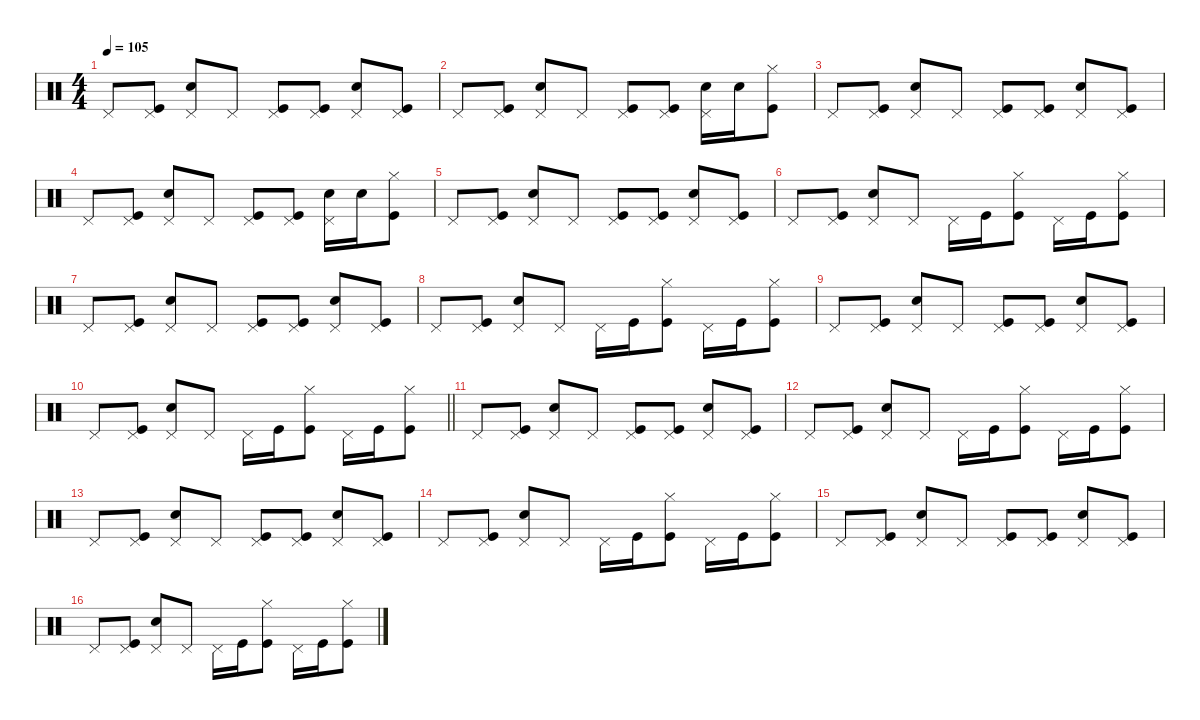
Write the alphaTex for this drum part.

\defaultSystemsLayout 4
\hideDynamics
\bracketExtendMode nobrackets
\singleTrackTrackNamePolicy hidden
\multiTrackTrackNamePolicy hidden
\otherSystemsTrackNameOrientation horizontal
\track ("Bonham" "drm.") {defaultSystemsLayout 4 instrument percussion}
\staff {score}
\articulation defaults
\ts (4 4)
\tempo 105
\clef neutral
\ks c "Pedal Hi-Hat (hit)".8{dy ff beam Up}
("Kick (hit)" "Pedal Hi-Hat (hit)").8{beam Up} ("Snare (hit) 2" "Pedal Hi-Hat (hit)").8{beam Up} "Pedal Hi-Hat (hit)".8{beam Up} ("Kick (hit)" "Pedal Hi-Hat (hit)").8{beam Up} ("Kick (hit)" "Pedal Hi-Hat (hit)").8{beam Up} ("Snare (hit) 2" "Pedal Hi-Hat (hit)").8{beam Up} ("Kick (hit)" "Pedal Hi-Hat (hit)").8{beam Up} |
"Pedal Hi-Hat (hit)".8{beam Up} ("Kick (hit)" "Pedal Hi-Hat (hit)").8{beam Up} ("Snare (hit) 2" "Pedal Hi-Hat (hit)").8{beam Up} "Pedal Hi-Hat (hit)".8{beam Up} ("Kick (hit)" "Pedal Hi-Hat (hit)").8{beam Up} ("Kick (hit)" "Pedal Hi-Hat (hit)").8{beam Up} ("Snare (hit) 2" "Pedal Hi-Hat (hit)").16{beam Down} "Snare (hit) 2".16{beam Down} ("Kick (hit)" "Hi-Hat (closed)").8{beam Down} |
"Pedal Hi-Hat (hit)".8{beam Up} ("Kick (hit)" "Pedal Hi-Hat (hit)").8{beam Up} ("Snare (hit) 2" "Pedal Hi-Hat (hit)").8{beam Up} "Pedal Hi-Hat (hit)".8{beam Up} ("Kick (hit)" "Pedal Hi-Hat (hit)").8{beam Up} ("Kick (hit)" "Pedal Hi-Hat (hit)").8{beam Up} ("Snare (hit) 2" "Pedal Hi-Hat (hit)").8{beam Up} ("Kick (hit)" "Pedal Hi-Hat (hit)").8{beam Up} |
"Pedal Hi-Hat (hit)".8{beam Up} ("Kick (hit)" "Pedal Hi-Hat (hit)").8{beam Up} ("Snare (hit) 2" "Pedal Hi-Hat (hit)").8{beam Up} "Pedal Hi-Hat (hit)".8{beam Up} ("Kick (hit)" "Pedal Hi-Hat (hit)").8{beam Up} ("Kick (hit)" "Pedal Hi-Hat (hit)").8{beam Up} ("Snare (hit) 2" "Pedal Hi-Hat (hit)").16{beam Down} "Snare (hit) 2".16{beam Down} ("Kick (hit)" "Hi-Hat (closed)").8{beam Down} |
"Pedal Hi-Hat (hit)".8{beam Up} ("Kick (hit)" "Pedal Hi-Hat (hit)").8{beam Up} ("Snare (hit) 2" "Pedal Hi-Hat (hit)").8{beam Up} "Pedal Hi-Hat (hit)".8{beam Up} ("Kick (hit)" "Pedal Hi-Hat (hit)").8{beam Up} ("Kick (hit)" "Pedal Hi-Hat (hit)").8{beam Up} ("Snare (hit) 2" "Pedal Hi-Hat (hit)").8{beam Up} ("Kick (hit)" "Pedal Hi-Hat (hit)").8{beam Up} |
"Pedal Hi-Hat (hit)".8{beam Up} ("Kick (hit)" "Pedal Hi-Hat (hit)").8{beam Up} ("Snare (hit) 2" "Pedal Hi-Hat (hit)").8{beam Up} "Pedal Hi-Hat (hit)".8{beam Up} "Pedal Hi-Hat (hit)".16{beam Down} "Kick (hit)".16{beam Down} ("Kick (hit)" "Hi-Hat (closed)").8{beam Down} "Pedal Hi-Hat (hit)".16{beam Down} "Kick (hit)".16{beam Down} ("Kick (hit)" "Hi-Hat (closed)").8{beam Down} |
"Pedal Hi-Hat (hit)".8{beam Up} ("Kick (hit)" "Pedal Hi-Hat (hit)").8{beam Up} ("Snare (hit) 2" "Pedal Hi-Hat (hit)").8{beam Up} "Pedal Hi-Hat (hit)".8{beam Up} ("Kick (hit)" "Pedal Hi-Hat (hit)").8{beam Up} ("Kick (hit)" "Pedal Hi-Hat (hit)").8{beam Up} ("Snare (hit) 2" "Pedal Hi-Hat (hit)").8{beam Up} ("Kick (hit)" "Pedal Hi-Hat (hit)").8{beam Up} |
"Pedal Hi-Hat (hit)".8{beam Up} ("Kick (hit)" "Pedal Hi-Hat (hit)").8{beam Up} ("Snare (hit) 2" "Pedal Hi-Hat (hit)").8{beam Up} "Pedal Hi-Hat (hit)".8{beam Up} "Pedal Hi-Hat (hit)".16{beam Down} "Kick (hit)".16{beam Down} ("Kick (hit)" "Hi-Hat (closed)").8{beam Down} "Pedal Hi-Hat (hit)".16{beam Down} "Kick (hit)".16{beam Down} ("Kick (hit)" "Hi-Hat (closed)").8{beam Down} |
"Pedal Hi-Hat (hit)".8{beam Up} ("Kick (hit)" "Pedal Hi-Hat (hit)").8{beam Up} ("Snare (hit) 2" "Pedal Hi-Hat (hit)").8{beam Up} "Pedal Hi-Hat (hit)".8{beam Up} ("Kick (hit)" "Pedal Hi-Hat (hit)").8{beam Up} ("Kick (hit)" "Pedal Hi-Hat (hit)").8{beam Up} ("Snare (hit) 2" "Pedal Hi-Hat (hit)").8{beam Up} ("Kick (hit)" "Pedal Hi-Hat (hit)").8{beam Up} |
\barLineRight lightlight "Pedal Hi-Hat (hit)".8{beam Up}
("Kick (hit)" "Pedal Hi-Hat (hit)").8{beam Up} ("Snare (hit) 2" "Pedal Hi-Hat (hit)").8{beam Up} "Pedal Hi-Hat (hit)".8{beam Up} "Pedal Hi-Hat (hit)".16{beam Down} "Kick (hit)".16{beam Down} ("Kick (hit)" "Hi-Hat (closed)").8{beam Down} "Pedal Hi-Hat (hit)".16{beam Down} "Kick (hit)".16{beam Down} ("Kick (hit)" "Hi-Hat (closed)").8{beam Down} |
"Pedal Hi-Hat (hit)".8{beam Up} ("Kick (hit)" "Pedal Hi-Hat (hit)").8{beam Up} ("Snare (hit) 2" "Pedal Hi-Hat (hit)").8{beam Up} "Pedal Hi-Hat (hit)".8{beam Up} ("Kick (hit)" "Pedal Hi-Hat (hit)").8{beam Up} ("Kick (hit)" "Pedal Hi-Hat (hit)").8{beam Up} ("Snare (hit) 2" "Pedal Hi-Hat (hit)").8{beam Up} ("Kick (hit)" "Pedal Hi-Hat (hit)").8{beam Up} |
"Pedal Hi-Hat (hit)".8{beam Up} ("Kick (hit)" "Pedal Hi-Hat (hit)").8{beam Up} ("Snare (hit) 2" "Pedal Hi-Hat (hit)").8{beam Up} "Pedal Hi-Hat (hit)".8{beam Up} "Pedal Hi-Hat (hit)".16{beam Down} "Kick (hit)".16{beam Down} ("Kick (hit)" "Hi-Hat (closed)").8{beam Down} "Pedal Hi-Hat (hit)".16{beam Down} "Kick (hit)".16{beam Down} ("Kick (hit)" "Hi-Hat (closed)").8{beam Down} |
"Pedal Hi-Hat (hit)".8{beam Up} ("Kick (hit)" "Pedal Hi-Hat (hit)").8{beam Up} ("Snare (hit) 2" "Pedal Hi-Hat (hit)").8{beam Up} "Pedal Hi-Hat (hit)".8{beam Up} ("Kick (hit)" "Pedal Hi-Hat (hit)").8{beam Up} ("Kick (hit)" "Pedal Hi-Hat (hit)").8{beam Up} ("Snare (hit) 2" "Pedal Hi-Hat (hit)").8{beam Up} ("Kick (hit)" "Pedal Hi-Hat (hit)").8{beam Up} |
"Pedal Hi-Hat (hit)".8{beam Up} ("Kick (hit)" "Pedal Hi-Hat (hit)").8{beam Up} ("Snare (hit) 2" "Pedal Hi-Hat (hit)").8{beam Up} "Pedal Hi-Hat (hit)".8{beam Up} "Pedal Hi-Hat (hit)".16{beam Down} "Kick (hit)".16{beam Down} ("Kick (hit)" "Hi-Hat (closed)").8{beam Down} "Pedal Hi-Hat (hit)".16{beam Down} "Kick (hit)".16{beam Down} ("Kick (hit)" "Hi-Hat (closed)").8{beam Down} |
"Pedal Hi-Hat (hit)".8{beam Up} ("Kick (hit)" "Pedal Hi-Hat (hit)").8{beam Up} ("Snare (hit) 2" "Pedal Hi-Hat (hit)").8{beam Up} "Pedal Hi-Hat (hit)".8{beam Up} ("Kick (hit)" "Pedal Hi-Hat (hit)").8{beam Up} ("Kick (hit)" "Pedal Hi-Hat (hit)").8{beam Up} ("Snare (hit) 2" "Pedal Hi-Hat (hit)").8{beam Up} ("Kick (hit)" "Pedal Hi-Hat (hit)").8{beam Up} |
"Pedal Hi-Hat (hit)".8{beam Up} ("Kick (hit)" "Pedal Hi-Hat (hit)").8{beam Up} ("Snare (hit) 2" "Pedal Hi-Hat (hit)").8{beam Up} "Pedal Hi-Hat (hit)".8{beam Up} "Pedal Hi-Hat (hit)".16{beam Down} "Kick (hit)".16{beam Down} ("Kick (hit)" "Hi-Hat (closed)").8{beam Down} "Pedal Hi-Hat (hit)".16{beam Down} "Kick (hit)".16{beam Down} ("Kick (hit)" "Hi-Hat (closed)").8{beam Down}
